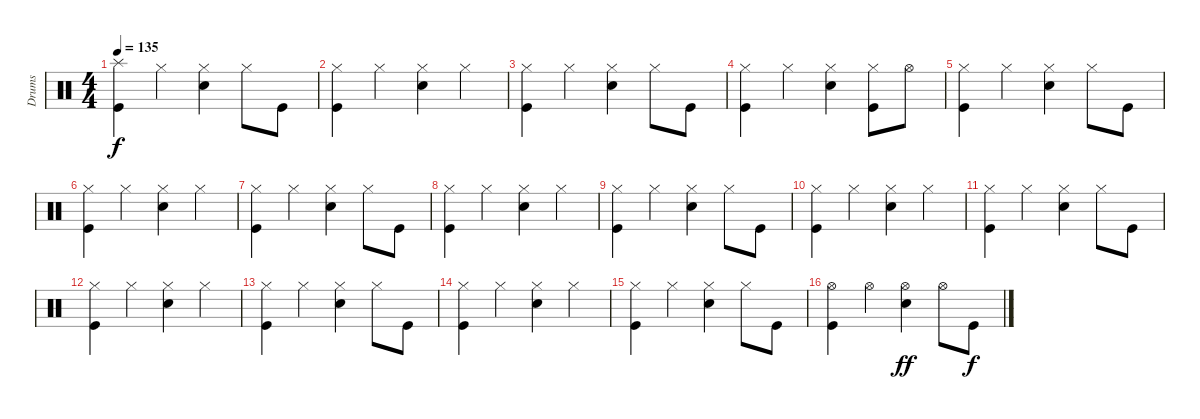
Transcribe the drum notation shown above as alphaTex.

\track ("Drums" "Drums") {instrument percussion}
\staff {score}
\articulation defaults
\ts (4 4)
\tempo 135
\clef neutral
\ks c
("Splash (hit)" "Kick (hit)").4{dy f} "Hi-Hat (closed)".4 ("Hi-Hat (closed)" "Snare (hit) 2").4 "Hi-Hat (closed)".8 "Kick (hit)".8 |
("Hi-Hat (closed)" "Kick (hit)").4 "Hi-Hat (closed)".4 ("Hi-Hat (closed)" "Snare (hit) 2").4 "Hi-Hat (closed)".4 |
("Hi-Hat (closed)" "Kick (hit)").4 "Hi-Hat (closed)".4 ("Hi-Hat (closed)" "Snare (hit) 2").4 "Hi-Hat (closed)".8 "Kick (hit)".8 |
("Hi-Hat (closed)" "Kick (hit)").4 "Hi-Hat (closed)".4 ("Hi-Hat (closed)" "Snare (hit) 2").4 ("Hi-Hat (closed)" "Kick (hit)").8 "Hi-Hat (open)".8 |
("Hi-Hat (closed)" "Kick (hit)").4 "Hi-Hat (closed)".4 ("Hi-Hat (closed)" "Snare (hit) 2").4 "Hi-Hat (closed)".8 "Kick (hit)".8 |
("Hi-Hat (closed)" "Kick (hit)").4 "Hi-Hat (closed)".4 ("Hi-Hat (closed)" "Snare (hit) 2").4 "Hi-Hat (closed)".4 |
("Hi-Hat (closed)" "Kick (hit)").4 "Hi-Hat (closed)".4 ("Hi-Hat (closed)" "Snare (hit) 2").4 "Hi-Hat (closed)".8 "Kick (hit)".8 |
("Hi-Hat (closed)" "Kick (hit)").4 "Hi-Hat (closed)".4 ("Hi-Hat (closed)" "Snare (hit) 2").4 "Hi-Hat (closed)".4 |
("Hi-Hat (closed)" "Kick (hit)").4 "Hi-Hat (closed)".4 ("Hi-Hat (closed)" "Snare (hit) 2").4 "Hi-Hat (closed)".8 "Kick (hit)".8 |
("Hi-Hat (closed)" "Kick (hit)").4 "Hi-Hat (closed)".4 ("Hi-Hat (closed)" "Snare (hit) 2").4 "Hi-Hat (closed)".4 |
("Hi-Hat (closed)" "Kick (hit)").4 "Hi-Hat (closed)".4 ("Hi-Hat (closed)" "Snare (hit) 2").4 "Hi-Hat (closed)".8 "Kick (hit)".8 |
("Hi-Hat (closed)" "Kick (hit)").4 "Hi-Hat (closed)".4 ("Hi-Hat (closed)" "Snare (hit) 2").4 "Hi-Hat (closed)".4 |
("Hi-Hat (closed)" "Kick (hit)").4 "Hi-Hat (closed)".4 ("Hi-Hat (closed)" "Snare (hit) 2").4 "Hi-Hat (closed)".8 "Kick (hit)".8 |
("Hi-Hat (closed)" "Kick (hit)").4 "Hi-Hat (closed)".4 ("Hi-Hat (closed)" "Snare (hit) 2").4 "Hi-Hat (closed)".4 |
("Hi-Hat (closed)" "Kick (hit)").4 "Hi-Hat (closed)".4 ("Hi-Hat (closed)" "Snare (hit) 2").4 "Hi-Hat (closed)".8 "Kick (hit)".8 |
("Hi-Hat (open)" "Kick (hit)").4 "Hi-Hat (open)".4 ("Hi-Hat (open)" "Snare (hit) 2").4{dy ff} "Hi-Hat (open)".8 "Kick (hit)".8{dy f}
